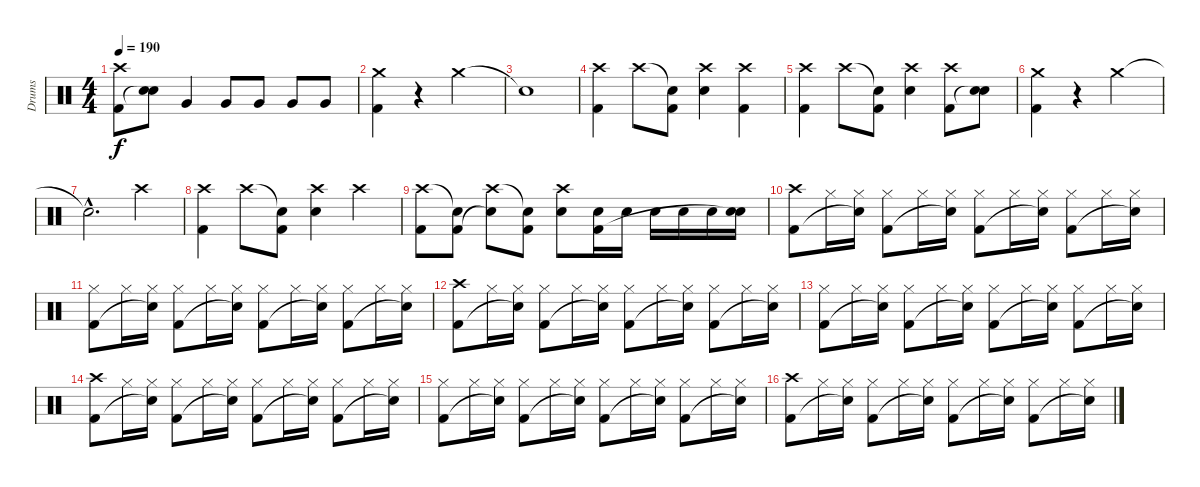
\track ("Drums" "Drums") {instrument percussion}
\staff {score}
\articulation defaults
\ts (4 4)
\tempo 190
\clef neutral
\ks c
("Crash high (hit)" "Kick (hit) 2").8{dy f} ("Snare (hit) 2" "Snare (hit)"{t}).8 "Very Low Tom (hit)".4 "Very Low Tom (hit)".8 "Very Low Tom (hit)".8 "Very Low Tom (hit)".8 "Very Low Tom (hit)".8 |
("Crash medium (hit)" "Kick (hit) 2").4 r.4 "Crash medium (hit)".2 |
"Snare (hit)"{t}.1 |
("Crash high (hit)" "Kick (hit) 2").4 "Crash high (hit)".8 ("Snare (hit)"{t} "Kick (hit) 2").8 ("Crash high (hit)" "Snare (hit) 2").4 ("Crash high (hit)" "Kick (hit) 2").4 |
("Crash high (hit)" "Kick (hit) 2").4 "Crash high (hit)".8 ("Snare (hit)"{t} "Kick (hit) 2").8 ("Crash high (hit)" "Snare (hit) 2").4 ("Crash high (hit)" "Kick (hit) 2").8 ("Snare (hit) 2" "Snare (hit)"{t}).8 |
("Crash medium (hit)" "Kick (hit) 2").4 r.4 "Crash medium (hit)".2 |
"Snare (hit)"{hac t}.2{d} "Crash high (hit)".4 |
("Crash high (hit)" "Kick (hit) 2").4 "Crash high (hit)".8 ("Snare (hit)"{t} "Kick (hit) 2").8 ("Crash high (hit)" "Snare (hit) 2").4 "Crash high (hit)".4 |
("Crash high (hit)" "Kick (hit) 2").8 ("Snare (hit)"{t} "Kick (hit) 2").8 ("Crash high (hit)" "Snare (hit)"{t}).8 ("Snare (hit)"{t} "Kick (hit) 2").8 ("Crash high (hit)" "Snare (hit) 2").8 ("Snare (hit) 2" "Kick (hit) 2").16 "Snare (hit) 2".16 "Snare (hit) 2".16 "Snare (hit) 2".16 "Snare (hit) 2".16 ("Snare (hit) 2" "Snare (hit)"{t}).16 |
("Crash high (hit)" "Kick (hit) 2").8 "Hi-Hat (closed)".16 ("Hi-Hat (closed)" "Snare (hit)"{t}).16 ("Hi-Hat (closed)" "Kick (hit) 2").8 "Hi-Hat (closed)".16 ("Hi-Hat (closed)" "Snare (hit)"{t}).16 ("Hi-Hat (closed)" "Kick (hit) 2").8 "Hi-Hat (closed)".16 ("Hi-Hat (closed)" "Snare (hit)"{t}).16 ("Hi-Hat (closed)" "Kick (hit) 2").8 "Hi-Hat (closed)".16 ("Hi-Hat (closed)" "Snare (hit)"{t}).16 |
("Hi-Hat (closed)" "Kick (hit) 2").8 "Hi-Hat (closed)".16 ("Hi-Hat (closed)" "Snare (hit)"{t}).16 ("Hi-Hat (closed)" "Kick (hit) 2").8 "Hi-Hat (closed)".16 ("Hi-Hat (closed)" "Snare (hit)"{t}).16 ("Hi-Hat (closed)" "Kick (hit) 2").8 "Hi-Hat (closed)".16 ("Hi-Hat (closed)" "Snare (hit)"{t}).16 ("Hi-Hat (closed)" "Kick (hit) 2").8 "Hi-Hat (closed)".16 ("Hi-Hat (closed)" "Snare (hit)"{t}).16 |
("Crash high (hit)" "Kick (hit) 2").8 "Hi-Hat (closed)".16 ("Hi-Hat (closed)" "Snare (hit)"{t}).16 ("Hi-Hat (closed)" "Kick (hit) 2").8 "Hi-Hat (closed)".16 ("Hi-Hat (closed)" "Snare (hit)"{t}).16 ("Hi-Hat (closed)" "Kick (hit) 2").8 "Hi-Hat (closed)".16 ("Hi-Hat (closed)" "Snare (hit)"{t}).16 ("Hi-Hat (closed)" "Kick (hit) 2").8 "Hi-Hat (closed)".16 ("Hi-Hat (closed)" "Snare (hit)"{t}).16 |
("Hi-Hat (closed)" "Kick (hit) 2").8 "Hi-Hat (closed)".16 ("Hi-Hat (closed)" "Snare (hit)"{t}).16 ("Hi-Hat (closed)" "Kick (hit) 2").8 "Hi-Hat (closed)".16 ("Hi-Hat (closed)" "Snare (hit)"{t}).16 ("Hi-Hat (closed)" "Kick (hit) 2").8 "Hi-Hat (closed)".16 ("Hi-Hat (closed)" "Snare (hit)"{t}).16 ("Hi-Hat (closed)" "Kick (hit) 2").8 "Hi-Hat (closed)".16 ("Hi-Hat (closed)" "Snare (hit)"{t}).16 |
("Crash high (hit)" "Kick (hit) 2").8 "Hi-Hat (closed)".16 ("Hi-Hat (closed)" "Snare (hit)"{t}).16 ("Hi-Hat (closed)" "Kick (hit) 2").8 "Hi-Hat (closed)".16 ("Hi-Hat (closed)" "Snare (hit)"{t}).16 ("Hi-Hat (closed)" "Kick (hit) 2").8 "Hi-Hat (closed)".16 ("Hi-Hat (closed)" "Snare (hit)"{t}).16 ("Hi-Hat (closed)" "Kick (hit) 2").8 "Hi-Hat (closed)".16 ("Hi-Hat (closed)" "Snare (hit)"{t}).16 |
("Hi-Hat (closed)" "Kick (hit) 2").8 "Hi-Hat (closed)".16 ("Hi-Hat (closed)" "Snare (hit)"{t}).16 ("Hi-Hat (closed)" "Kick (hit) 2").8 "Hi-Hat (closed)".16 ("Hi-Hat (closed)" "Snare (hit)"{t}).16 ("Hi-Hat (closed)" "Kick (hit) 2").8 "Hi-Hat (closed)".16 ("Hi-Hat (closed)" "Snare (hit)"{t}).16 ("Hi-Hat (closed)" "Kick (hit) 2").8 "Hi-Hat (closed)".16 ("Hi-Hat (closed)" "Snare (hit)"{t}).16 |
("Crash high (hit)" "Kick (hit) 2").8 "Hi-Hat (closed)".16 ("Hi-Hat (closed)" "Snare (hit)"{t}).16 ("Hi-Hat (closed)" "Kick (hit) 2").8 "Hi-Hat (closed)".16 ("Hi-Hat (closed)" "Snare (hit)"{t}).16 ("Hi-Hat (closed)" "Kick (hit) 2").8 "Hi-Hat (closed)".16 ("Hi-Hat (closed)" "Snare (hit)"{t}).16 ("Hi-Hat (closed)" "Kick (hit) 2").8 "Hi-Hat (closed)".16 ("Hi-Hat (closed)" "Snare (hit)"{t}).16
